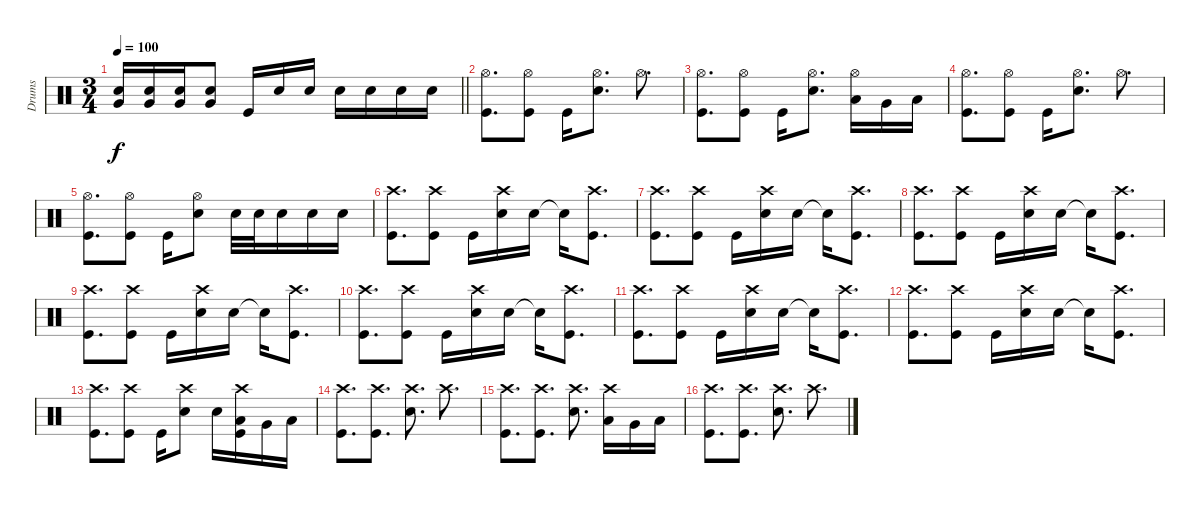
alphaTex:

\track ("Drums" "Drums") {instrument percussion}
\staff {score}
\articulation defaults
\ts (3 4)
\tempo 100
\clef neutral
\barLineRight lightlight
\ks c
("Snare (hit) 2" "Very Low Tom (hit)").16{dy f} ("Snare (hit) 2" "Very Low Tom (hit)").16 ("Snare (hit) 2" "Very Low Tom (hit)").16 ("Snare (hit) 2" "Very Low Tom (hit)").8 "Kick (hit)".16{volume 16} "Snare (hit) 2".16 "Snare (hit) 2".16 "Snare (hit) 2".16 "Snare (hit) 2".16 "Snare (hit) 2".16 "Snare (hit) 2".16 |
("Hi-Hat (open)" "Kick (hit)").8{d} ("Hi-Hat (open)" "Kick (hit)").8 "Kick (hit)".16 ("Hi-Hat (open)" "Snare (hit) 2").8{d} "Hi-Hat (open)".8{d} |
("Hi-Hat (open)" "Kick (hit)").8{d} ("Hi-Hat (open)" "Kick (hit)").8 "Kick (hit)".16 ("Hi-Hat (open)" "Snare (hit) 2").8{d} ("Hi-Hat (open)" "Low Floor Tom (hit)").16 "Very Low Tom (hit)".16 "Low Tom (hit)".16 |
("Hi-Hat (open)" "Kick (hit)").8{d} ("Hi-Hat (open)" "Kick (hit)").8 "Kick (hit)".16 ("Hi-Hat (open)" "Snare (hit) 2").8{d} "Hi-Hat (open)".8{d} |
("Hi-Hat (open)" "Kick (hit)").8{d} ("Hi-Hat (open)" "Kick (hit)").8 "Kick (hit)".16 ("Hi-Hat (open)" "Snare (hit) 2").8 "Snare (hit) 2".32 "Snare (hit) 2".32 "Snare (hit) 2".16 "Snare (hit) 2".16 "Snare (hit) 2".16 |
("Crash high (hit)" "Kick (hit)").8{d} ("Crash high (hit)" "Kick (hit)").8 "Kick (hit)".16 ("Crash high (hit)" "Snare (hit) 2").16 "Snare (hit) 2".16 "Snare (hit) 2"{t}.16 ("Crash high (hit)" "Kick (hit)").8{d} |
("Crash high (hit)" "Kick (hit)").8{d} ("Crash high (hit)" "Kick (hit)").8 "Kick (hit)".16 ("Crash high (hit)" "Snare (hit) 2").16 "Snare (hit) 2".16 "Snare (hit) 2"{t}.16 ("Crash high (hit)" "Kick (hit)").8{d} |
("Crash high (hit)" "Kick (hit)").8{d} ("Crash high (hit)" "Kick (hit)").8 "Kick (hit)".16 ("Crash high (hit)" "Snare (hit) 2").16 "Snare (hit) 2".16 "Snare (hit) 2"{t}.16 ("Crash high (hit)" "Kick (hit)").8{d} |
("Crash high (hit)" "Kick (hit)").8{d} ("Crash high (hit)" "Kick (hit)").8 "Kick (hit)".16 ("Crash high (hit)" "Snare (hit) 2").16 "Snare (hit) 2".16 "Snare (hit) 2"{t}.16 ("Crash high (hit)" "Kick (hit)").8{d} |
("Crash high (hit)" "Kick (hit)").8{d} ("Crash high (hit)" "Kick (hit)").8 "Kick (hit)".16 ("Crash high (hit)" "Snare (hit) 2").16 "Snare (hit) 2".16 "Snare (hit) 2"{t}.16 ("Crash high (hit)" "Kick (hit)").8{d} |
("Crash high (hit)" "Kick (hit)").8{d} ("Crash high (hit)" "Kick (hit)").8 "Kick (hit)".16 ("Crash high (hit)" "Snare (hit) 2").16 "Snare (hit) 2".16 "Snare (hit) 2"{t}.16 ("Crash high (hit)" "Kick (hit)").8{d} |
("Crash high (hit)" "Kick (hit)").8{d} ("Crash high (hit)" "Kick (hit)").8 "Kick (hit)".16 ("Crash high (hit)" "Snare (hit) 2").16 "Snare (hit) 2".16 "Snare (hit) 2"{t}.16 ("Crash high (hit)" "Kick (hit)").8{d} |
("Crash high (hit)" "Kick (hit)").8{d} ("Crash high (hit)" "Kick (hit)").8 "Kick (hit)".16 ("Crash high (hit)" "Snare (hit) 2").8 "Snare (hit) 2".16 ("Crash high (hit)" "Low Tom (hit)" "Kick (hit)").16 "Very Low Tom (hit)".16 "Low Floor Tom (hit)".16 |
("Crash high (hit)" "Kick (hit)").8{d} ("Crash high (hit)" "Kick (hit)").8{d} ("Crash high (hit)" "Snare (hit) 2").8{d} "Crash high (hit)".8{d} |
("Crash high (hit)" "Kick (hit)").8{d} ("Crash high (hit)" "Kick (hit)").8{d} ("Crash high (hit)" "Snare (hit) 2").8{d} ("Crash high (hit)" "Low Floor Tom (hit)").16 "Very Low Tom (hit)".16 "Low Tom (hit)".16 |
("Crash high (hit)" "Kick (hit)").8{d} ("Crash high (hit)" "Kick (hit)").8{d} ("Crash high (hit)" "Snare (hit) 2").8{d} "Crash high (hit)".8{d}
